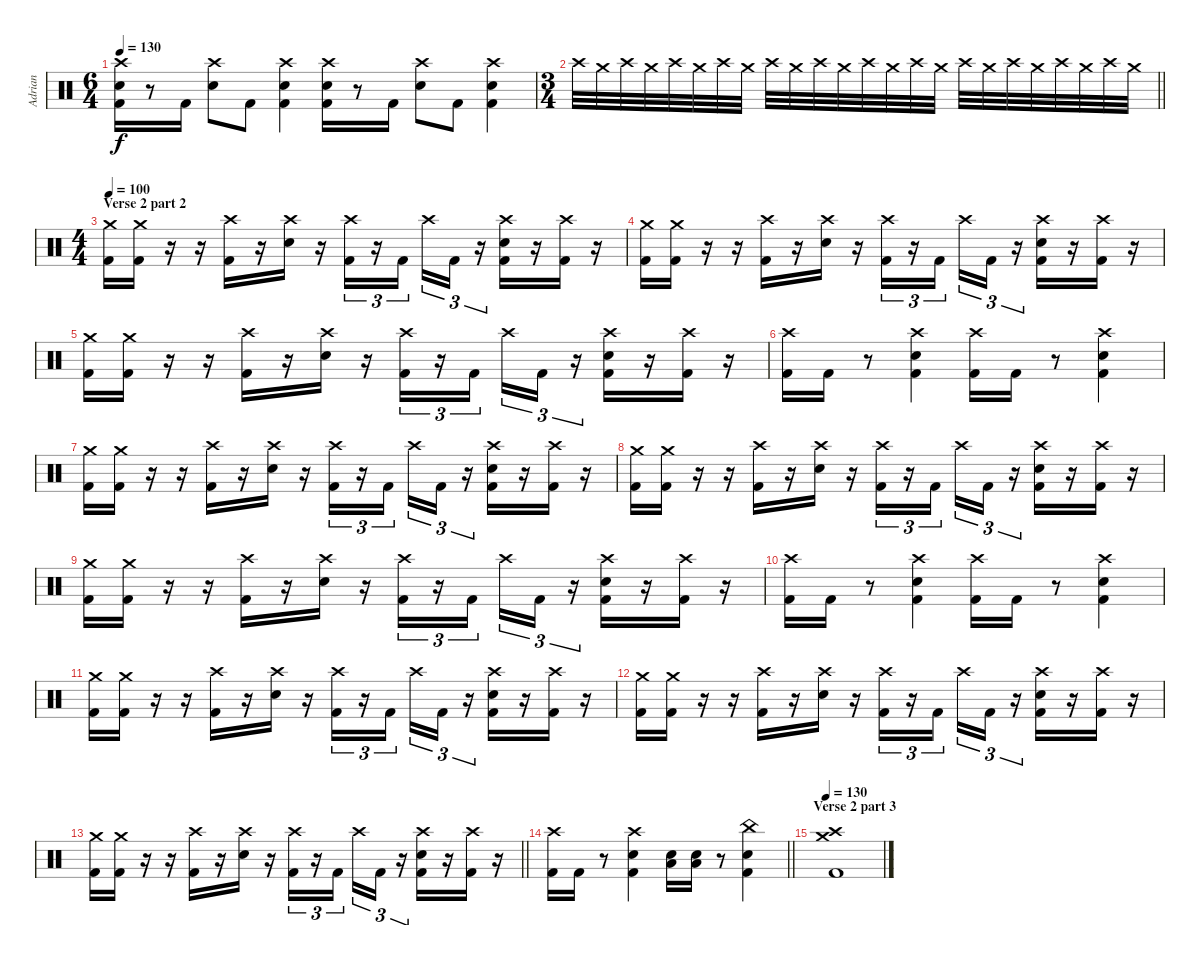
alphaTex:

\track ("Adrian" "Adrian") {instrument percussion}
\staff {score}
\articulation defaults
\ts (6 4)
\tempo 130
\clef neutral
\ks c
("Crash high (hit)" "Snare (hit) 2" "Kick (hit) 2").16{dy f} r.8 "Kick (hit) 2".16 ("Crash high (hit)" "Snare (hit) 2").8 "Kick (hit) 2".8 ("Crash high (hit)" "Snare (hit) 2" "Kick (hit) 2").4 ("Crash high (hit)" "Snare (hit) 2" "Kick (hit) 2").16 r.8 "Kick (hit) 2".16 ("Crash high (hit)" "Snare (hit) 2").8 "Kick (hit) 2".8 ("Crash high (hit)" "Snare (hit) 2" "Kick (hit) 2").4 |
\ts (3 4)
\barLineRight lightlight "Crash high (hit)".32{volume 4} "Crash medium (hit)".32{volume 13} "Crash high (hit)".32 "Crash medium (hit)".32 "Crash high (hit)".32 "Crash medium (hit)".32 "Crash high (hit)".32 "Crash medium (hit)".32 "Crash high (hit)".32 "Crash medium (hit)".32 "Crash high (hit)".32 "Crash medium (hit)".32 "Crash high (hit)".32 "Crash medium (hit)".32 "Crash high (hit)".32 "Crash medium (hit)".32 "Crash high (hit)".32 "Crash medium (hit)".32 "Crash high (hit)".32 "Crash medium (hit)".32 "Crash high (hit)".32 "Crash medium (hit)".32 "Crash high (hit)".32 "Crash medium (hit)".32
|
\ts (4 4)
\section ("" "Verse 2 part 2")
\tempo 100
("Crash medium (hit)" "Kick (hit) 2").16 ("Crash medium (hit)" "Kick (hit) 2").16 r.16 r.16 ("Crash high (hit)" "Kick (hit) 2").16 r.16 ("Crash high (hit)" "Snare (hit) 2").16 r.16 ("Crash high (hit)" "Kick (hit) 2").16{tu (3 2)} r.16{tu (3 2)} "Kick (hit) 2".16{tu (3 2) beam splitsecondary} "Crash high (hit)".16{tu (3 2)} "Kick (hit) 2".16{tu (3 2)} r.16{tu (3 2)} ("Crash high (hit)" "Snare (hit) 2" "Kick (hit) 2").16 r.16 ("Crash high (hit)" "Kick (hit) 2").16 r.16 |
("Crash medium (hit)" "Kick (hit) 2").16 ("Crash medium (hit)" "Kick (hit) 2").16 r.16 r.16 ("Crash high (hit)" "Kick (hit) 2").16 r.16 ("Crash high (hit)" "Snare (hit) 2").16 r.16 ("Crash high (hit)" "Kick (hit) 2").16{tu (3 2)} r.16{tu (3 2)} "Kick (hit) 2".16{tu (3 2) beam splitsecondary} "Crash high (hit)".16{tu (3 2)} "Kick (hit) 2".16{tu (3 2)} r.16{tu (3 2)} ("Crash high (hit)" "Snare (hit) 2" "Kick (hit) 2").16 r.16 ("Crash high (hit)" "Kick (hit) 2").16 r.16 |
("Crash medium (hit)" "Kick (hit) 2").16 ("Crash medium (hit)" "Kick (hit) 2").16 r.16 r.16 ("Crash high (hit)" "Kick (hit) 2").16 r.16 ("Crash high (hit)" "Snare (hit) 2").16 r.16 ("Crash high (hit)" "Kick (hit) 2").16{tu (3 2)} r.16{tu (3 2)} "Kick (hit) 2".16{tu (3 2) beam splitsecondary} "Crash high (hit)".16{tu (3 2)} "Kick (hit) 2".16{tu (3 2)} r.16{tu (3 2)} ("Crash high (hit)" "Snare (hit) 2" "Kick (hit) 2").16 r.16 ("Crash high (hit)" "Kick (hit) 2").16 r.16 |
("Crash high (hit)" "Kick (hit) 2").16 "Kick (hit) 2".16 r.8 ("Crash high (hit)" "Snare (hit) 2" "Kick (hit) 2").4 ("Crash high (hit)" "Kick (hit) 2").16 "Kick (hit) 2".16 r.8 ("Crash high (hit)" "Snare (hit) 2" "Kick (hit) 2").4 |
("Crash medium (hit)" "Kick (hit) 2").16 ("Crash medium (hit)" "Kick (hit) 2").16 r.16 r.16 ("Crash high (hit)" "Kick (hit) 2").16 r.16 ("Crash high (hit)" "Snare (hit) 2").16 r.16 ("Crash high (hit)" "Kick (hit) 2").16{tu (3 2)} r.16{tu (3 2)} "Kick (hit) 2".16{tu (3 2) beam splitsecondary} "Crash high (hit)".16{tu (3 2)} "Kick (hit) 2".16{tu (3 2)} r.16{tu (3 2)} ("Crash high (hit)" "Snare (hit) 2" "Kick (hit) 2").16 r.16 ("Crash high (hit)" "Kick (hit) 2").16 r.16 |
("Crash medium (hit)" "Kick (hit) 2").16 ("Crash medium (hit)" "Kick (hit) 2").16 r.16 r.16 ("Crash high (hit)" "Kick (hit) 2").16 r.16 ("Crash high (hit)" "Snare (hit) 2").16 r.16 ("Crash high (hit)" "Kick (hit) 2").16{tu (3 2)} r.16{tu (3 2)} "Kick (hit) 2".16{tu (3 2) beam splitsecondary} "Crash high (hit)".16{tu (3 2)} "Kick (hit) 2".16{tu (3 2)} r.16{tu (3 2)} ("Crash high (hit)" "Snare (hit) 2" "Kick (hit) 2").16 r.16 ("Crash high (hit)" "Kick (hit) 2").16 r.16 |
("Crash medium (hit)" "Kick (hit) 2").16 ("Crash medium (hit)" "Kick (hit) 2").16 r.16 r.16 ("Crash high (hit)" "Kick (hit) 2").16 r.16 ("Crash high (hit)" "Snare (hit) 2").16 r.16 ("Crash high (hit)" "Kick (hit) 2").16{tu (3 2)} r.16{tu (3 2)} "Kick (hit) 2".16{tu (3 2) beam splitsecondary} "Crash high (hit)".16{tu (3 2)} "Kick (hit) 2".16{tu (3 2)} r.16{tu (3 2)} ("Crash high (hit)" "Snare (hit) 2" "Kick (hit) 2").16 r.16 ("Crash high (hit)" "Kick (hit) 2").16 r.16 |
("Crash high (hit)" "Kick (hit) 2").16 "Kick (hit) 2".16 r.8 ("Crash high (hit)" "Snare (hit) 2" "Kick (hit) 2").4 ("Crash high (hit)" "Kick (hit) 2").16 "Kick (hit) 2".16 r.8 ("Crash high (hit)" "Snare (hit) 2" "Kick (hit) 2").4 |
("Crash medium (hit)" "Kick (hit) 2").16 ("Crash medium (hit)" "Kick (hit) 2").16 r.16 r.16 ("Crash high (hit)" "Kick (hit) 2").16 r.16 ("Crash high (hit)" "Snare (hit) 2").16 r.16 ("Crash high (hit)" "Kick (hit) 2").16{tu (3 2)} r.16{tu (3 2)} "Kick (hit) 2".16{tu (3 2) beam splitsecondary} "Crash high (hit)".16{tu (3 2)} "Kick (hit) 2".16{tu (3 2)} r.16{tu (3 2)} ("Crash high (hit)" "Snare (hit) 2" "Kick (hit) 2").16 r.16 ("Crash high (hit)" "Kick (hit) 2").16 r.16 |
("Crash medium (hit)" "Kick (hit) 2").16 ("Crash medium (hit)" "Kick (hit) 2").16 r.16 r.16 ("Crash high (hit)" "Kick (hit) 2").16 r.16 ("Crash high (hit)" "Snare (hit) 2").16 r.16 ("Crash high (hit)" "Kick (hit) 2").16{tu (3 2)} r.16{tu (3 2)} "Kick (hit) 2".16{tu (3 2) beam splitsecondary} "Crash high (hit)".16{tu (3 2)} "Kick (hit) 2".16{tu (3 2)} r.16{tu (3 2)} ("Crash high (hit)" "Snare (hit) 2" "Kick (hit) 2").16 r.16 ("Crash high (hit)" "Kick (hit) 2").16 r.16 |
\barLineRight lightlight
("Crash medium (hit)" "Kick (hit) 2").16 ("Crash medium (hit)" "Kick (hit) 2").16 r.16 r.16 ("Crash high (hit)" "Kick (hit) 2").16 r.16 ("Crash high (hit)" "Snare (hit) 2").16 r.16 ("Crash high (hit)" "Kick (hit) 2").16{tu (3 2)} r.16{tu (3 2)} "Kick (hit) 2".16{tu (3 2) beam splitsecondary} "Crash high (hit)".16{tu (3 2)} "Kick (hit) 2".16{tu (3 2)} r.16{tu (3 2)} ("Crash high (hit)" "Snare (hit) 2" "Kick (hit) 2").16 r.16 ("Crash high (hit)" "Kick (hit) 2").16 r.16 |
\barLineRight lightlight
("Crash high (hit)" "Kick (hit) 2").16 "Kick (hit) 2".16 r.8 ("Crash high (hit)" "Snare (hit) 2" "Kick (hit) 2").4 ("Low Floor Tom (hit)" "Snare (hit) 2").16 ("Low Floor Tom (hit)" "Snare (hit) 2").16 r.8 ("China (hit)" "Snare (hit) 2" "Kick (hit) 2").4 |
\section ("" "Verse 2 part 3")
\tempo 130
("Crash high (hit)" "Crash medium (hit)" "Kick (hit) 2").1
